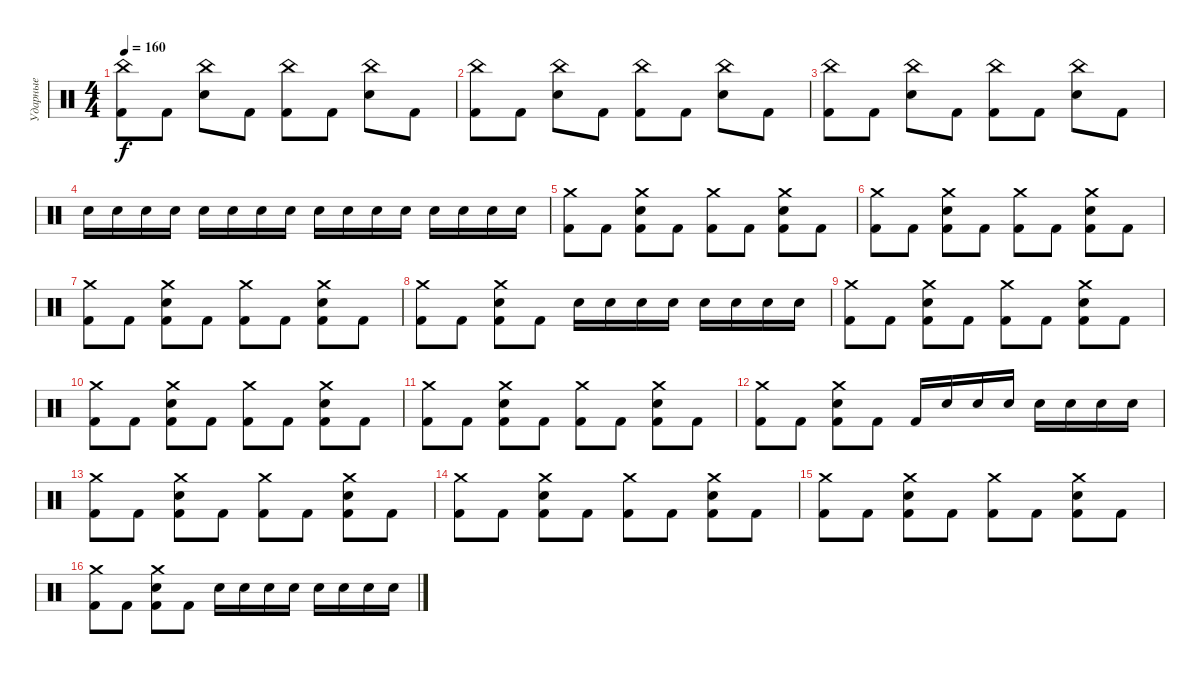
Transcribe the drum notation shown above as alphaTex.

\track ("Ударные" "Ударные") {instrument percussion}
\staff {score}
\articulation defaults
\ts (4 4)
\tempo 160
\clef neutral
\ks c
("Kick (hit) 2" "China (hit)").8{dy f} "Kick (hit) 2".8 ("Electric Snare (hit)" "China (hit)").8 "Kick (hit) 2".8 ("Kick (hit) 2" "China (hit)").8 "Kick (hit) 2".8 ("Electric Snare (hit)" "China (hit)").8 "Kick (hit) 2".8 |
("Kick (hit) 2" "China (hit)").8 "Kick (hit) 2".8 ("Electric Snare (hit)" "China (hit)").8 "Kick (hit) 2".8 ("Kick (hit) 2" "China (hit)").8 "Kick (hit) 2".8 ("Electric Snare (hit)" "China (hit)").8 "Kick (hit) 2".8 |
("Kick (hit) 2" "China (hit)").8 "Kick (hit) 2".8 ("Electric Snare (hit)" "China (hit)").8 "Kick (hit) 2".8 ("Kick (hit) 2" "China (hit)").8 "Kick (hit) 2".8 ("Electric Snare (hit)" "China (hit)").8 "Kick (hit) 2".8 |
"Electric Snare (hit)".16 "Electric Snare (hit)".16 "Electric Snare (hit)".16 "Electric Snare (hit)".16 "Electric Snare (hit)".16 "Electric Snare (hit)".16 "Electric Snare (hit)".16 "Electric Snare (hit)".16 "Electric Snare (hit)".16 "Electric Snare (hit)".16 "Electric Snare (hit)".16 "Electric Snare (hit)".16 "Electric Snare (hit)".16 "Electric Snare (hit)".16 "Electric Snare (hit)".16 "Electric Snare (hit)".16 |
("Crash medium (hit)" "Kick (hit) 2").8 "Kick (hit) 2".8 ("Crash medium (hit)" "Electric Snare (hit)" "Kick (hit) 2").8 "Kick (hit) 2".8 ("Crash medium (hit)" "Kick (hit) 2").8 "Kick (hit) 2".8 ("Crash medium (hit)" "Electric Snare (hit)" "Kick (hit) 2").8 "Kick (hit) 2".8 |
("Crash medium (hit)" "Kick (hit) 2").8 "Kick (hit) 2".8 ("Crash medium (hit)" "Electric Snare (hit)" "Kick (hit) 2").8 "Kick (hit) 2".8 ("Crash medium (hit)" "Kick (hit) 2").8 "Kick (hit) 2".8 ("Crash medium (hit)" "Electric Snare (hit)" "Kick (hit) 2").8 "Kick (hit) 2".8 |
("Crash medium (hit)" "Kick (hit) 2").8 "Kick (hit) 2".8 ("Crash medium (hit)" "Electric Snare (hit)" "Kick (hit) 2").8 "Kick (hit) 2".8 ("Crash medium (hit)" "Kick (hit) 2").8 "Kick (hit) 2".8 ("Crash medium (hit)" "Electric Snare (hit)" "Kick (hit) 2").8 "Kick (hit) 2".8 |
("Crash medium (hit)" "Kick (hit) 2").8 "Kick (hit) 2".8 ("Crash medium (hit)" "Electric Snare (hit)" "Kick (hit) 2").8 "Kick (hit) 2".8 "Electric Snare (hit)".16 "Electric Snare (hit)".16 "Electric Snare (hit)".16 "Electric Snare (hit)".16 "Electric Snare (hit)".16 "Electric Snare (hit)".16 "Electric Snare (hit)".16 "Electric Snare (hit)".16 |
("Crash medium (hit)" "Kick (hit) 2").8 "Kick (hit) 2".8 ("Crash medium (hit)" "Electric Snare (hit)" "Kick (hit) 2").8 "Kick (hit) 2".8 ("Crash medium (hit)" "Kick (hit) 2").8 "Kick (hit) 2".8 ("Crash medium (hit)" "Electric Snare (hit)" "Kick (hit) 2").8 "Kick (hit) 2".8 |
("Crash medium (hit)" "Kick (hit) 2").8 "Kick (hit) 2".8 ("Crash medium (hit)" "Electric Snare (hit)" "Kick (hit) 2").8 "Kick (hit) 2".8 ("Crash medium (hit)" "Kick (hit) 2").8 "Kick (hit) 2".8 ("Crash medium (hit)" "Electric Snare (hit)" "Kick (hit) 2").8 "Kick (hit) 2".8 |
("Crash medium (hit)" "Kick (hit) 2").8 "Kick (hit) 2".8 ("Crash medium (hit)" "Electric Snare (hit)" "Kick (hit) 2").8 "Kick (hit) 2".8 ("Crash medium (hit)" "Kick (hit) 2").8 "Kick (hit) 2".8 ("Crash medium (hit)" "Electric Snare (hit)" "Kick (hit) 2").8 "Kick (hit) 2".8 |
("Crash medium (hit)" "Kick (hit) 2").8 "Kick (hit) 2".8 ("Crash medium (hit)" "Electric Snare (hit)" "Kick (hit) 2").8 "Kick (hit) 2".8 "Kick (hit) 2".16 "Electric Snare (hit)".16 "Electric Snare (hit)".16 "Electric Snare (hit)".16 "Electric Snare (hit)".16 "Electric Snare (hit)".16 "Electric Snare (hit)".16 "Electric Snare (hit)".16 |
("Crash medium (hit)" "Kick (hit) 2").8 "Kick (hit) 2".8 ("Crash medium (hit)" "Electric Snare (hit)" "Kick (hit) 2").8 "Kick (hit) 2".8 ("Crash medium (hit)" "Kick (hit) 2").8 "Kick (hit) 2".8 ("Crash medium (hit)" "Electric Snare (hit)" "Kick (hit) 2").8 "Kick (hit) 2".8 |
("Crash medium (hit)" "Kick (hit) 2").8 "Kick (hit) 2".8 ("Crash medium (hit)" "Electric Snare (hit)" "Kick (hit) 2").8 "Kick (hit) 2".8 ("Crash medium (hit)" "Kick (hit) 2").8 "Kick (hit) 2".8 ("Crash medium (hit)" "Electric Snare (hit)" "Kick (hit) 2").8 "Kick (hit) 2".8 |
("Crash medium (hit)" "Kick (hit) 2").8 "Kick (hit) 2".8 ("Crash medium (hit)" "Electric Snare (hit)" "Kick (hit) 2").8 "Kick (hit) 2".8 ("Crash medium (hit)" "Kick (hit) 2").8 "Kick (hit) 2".8 ("Crash medium (hit)" "Electric Snare (hit)" "Kick (hit) 2").8 "Kick (hit) 2".8 |
("Crash medium (hit)" "Kick (hit) 2").8 "Kick (hit) 2".8 ("Crash medium (hit)" "Electric Snare (hit)" "Kick (hit) 2").8 "Kick (hit) 2".8 "Electric Snare (hit)".16 "Electric Snare (hit)".16 "Electric Snare (hit)".16 "Electric Snare (hit)".16 "Electric Snare (hit)".16 "Electric Snare (hit)".16 "Electric Snare (hit)".16 "Electric Snare (hit)".16
